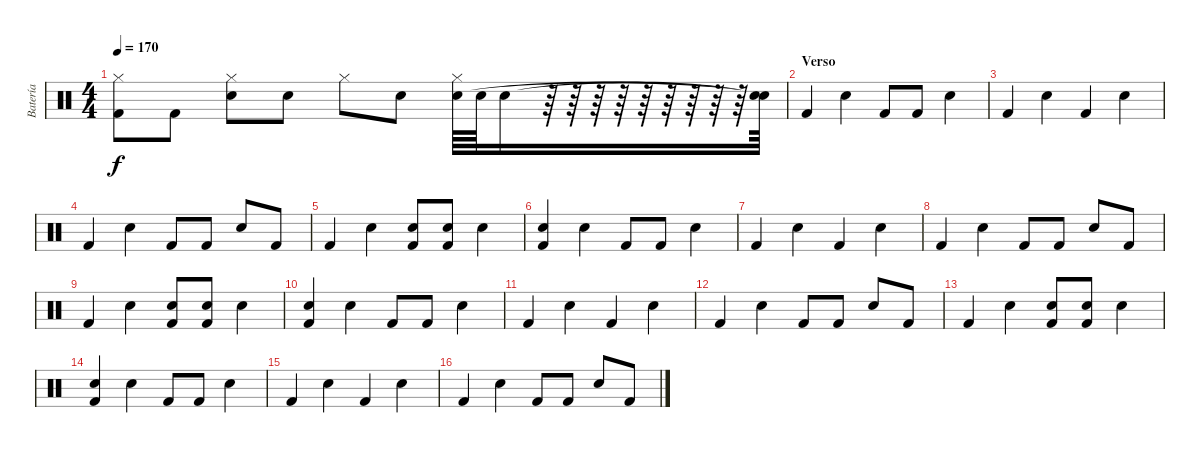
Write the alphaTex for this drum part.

\track ("Batería" "Batería") {instrument percussion}
\staff {score}
\articulation defaults
\ts (4 4)
\tempo 170
\clef neutral
\ks c
("Hi-Hat (closed)" "Kick (hit) 2").8{dy f} "Kick (hit) 2".8 ("Hi-Hat (closed)" "Snare (hit) 2").8 "Snare (hit)".8 "Hi-Hat (closed)".8 "Snare (hit)".8 ("Hi-Hat (closed)" "Snare (hit) 2").64 "Snare (hit) 2".64 "Snare (hit) 2".16 r.64 r.64 r.64 r.64 r.64 r.64 r.64 r.64 r.64 ("Snare (hit)"{t} "Snare (hit)"{t}).64 |
\section ("" "Verso")
"Kick (hit) 2".4 "Snare (hit) 2".4 "Kick (hit) 2".8 "Kick (hit) 2".8 "Snare (hit) 2".4 |
"Kick (hit) 2".4 "Snare (hit) 2".4 "Kick (hit) 2".4 "Snare (hit) 2".4 |
"Kick (hit) 2".4 "Snare (hit) 2".4 "Kick (hit) 2".8 "Kick (hit) 2".8 "Snare (hit) 2".8 "Kick (hit) 2".8 |
"Kick (hit) 2".4 "Snare (hit) 2".4 ("Kick (hit) 2" "Snare (hit)").8 ("Kick (hit) 2" "Snare (hit)").8 "Snare (hit) 2".4 |
("Kick (hit) 2" "Snare (hit)").4 "Snare (hit) 2".4 "Kick (hit) 2".8 "Kick (hit) 2".8 "Snare (hit) 2".4 |
"Kick (hit) 2".4 "Snare (hit) 2".4 "Kick (hit) 2".4 "Snare (hit) 2".4 |
"Kick (hit) 2".4 "Snare (hit) 2".4 "Kick (hit) 2".8 "Kick (hit) 2".8 "Snare (hit) 2".8 "Kick (hit) 2".8 |
"Kick (hit) 2".4 "Snare (hit) 2".4 ("Kick (hit) 2" "Snare (hit)").8 ("Kick (hit) 2" "Snare (hit)").8 "Snare (hit) 2".4 |
("Kick (hit) 2" "Snare (hit)").4 "Snare (hit) 2".4 "Kick (hit) 2".8 "Kick (hit) 2".8 "Snare (hit) 2".4 |
"Kick (hit) 2".4 "Snare (hit) 2".4 "Kick (hit) 2".4 "Snare (hit) 2".4 |
"Kick (hit) 2".4 "Snare (hit) 2".4 "Kick (hit) 2".8 "Kick (hit) 2".8 "Snare (hit) 2".8 "Kick (hit) 2".8 |
"Kick (hit) 2".4 "Snare (hit) 2".4 ("Kick (hit) 2" "Snare (hit)").8 ("Kick (hit) 2" "Snare (hit)").8 "Snare (hit) 2".4 |
("Kick (hit) 2" "Snare (hit)").4 "Snare (hit) 2".4 "Kick (hit) 2".8 "Kick (hit) 2".8 "Snare (hit) 2".4 |
"Kick (hit) 2".4 "Snare (hit) 2".4 "Kick (hit) 2".4 "Snare (hit) 2".4 |
"Kick (hit) 2".4 "Snare (hit) 2".4 "Kick (hit) 2".8 "Kick (hit) 2".8 "Snare (hit) 2".8 "Kick (hit) 2".8
